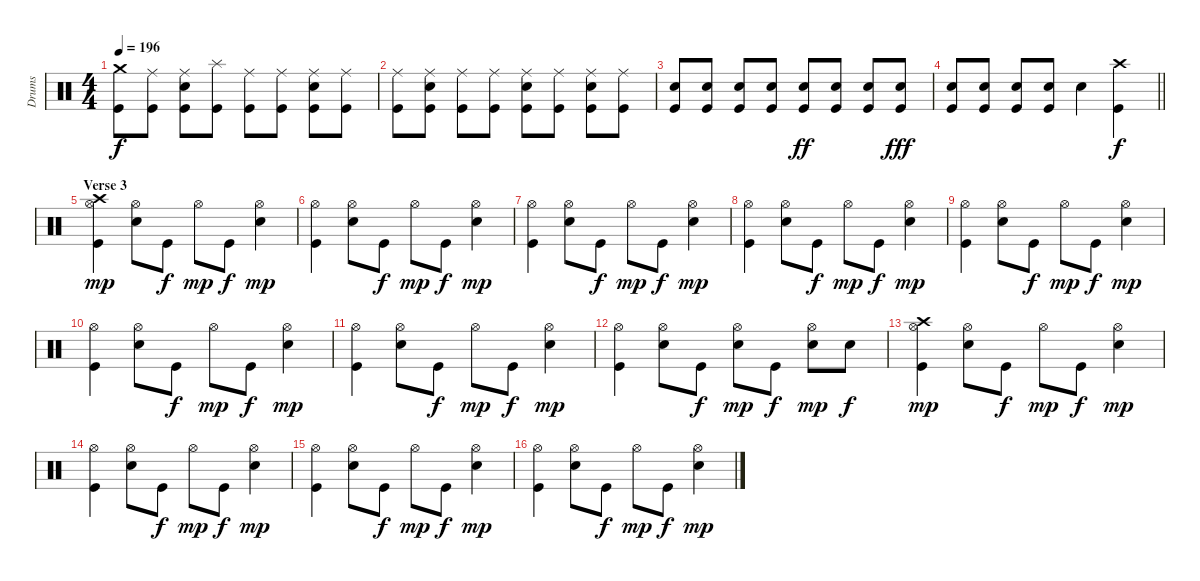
\track ("Drums" "Drums") {instrument percussion}
\staff {score}
\articulation defaults
\ts (4 4)
\tempo 196
\clef neutral
\ks c
("Crash medium (hit)" "Kick (hit)").8{dy f} ("Ride (middle)" "Kick (hit)").8 ("Ride (middle)" "Electric Snare (hit)" "Kick (hit)").8 ("Splash (hit)" "Kick (hit)").8 ("Ride (middle)" "Kick (hit)").8 ("Ride (middle)" "Kick (hit)").8 ("Ride (middle)" "Electric Snare (hit)" "Kick (hit)").8 ("Ride (middle)" "Kick (hit)").8 |
("Ride (middle)" "Kick (hit)").8 ("Ride (middle)" "Electric Snare (hit)" "Kick (hit)").8 ("Ride (middle)" "Kick (hit)").8 ("Ride (middle)" "Kick (hit)").8 ("Ride (middle)" "Electric Snare (hit)" "Kick (hit)").8 ("Ride (middle)" "Kick (hit)").8 ("Ride (middle)" "Electric Snare (hit)" "Kick (hit)").8 ("Ride (middle)" "Kick (hit)").8 |
("Electric Snare (hit)" "Kick (hit)").8 ("Electric Snare (hit)" "Kick (hit)").8 ("Electric Snare (hit)" "Kick (hit)").8 ("Electric Snare (hit)" "Kick (hit)").8 ("Electric Snare (hit)" "Kick (hit)").8{dy ff} ("Electric Snare (hit)" "Kick (hit)").8 ("Electric Snare (hit)" "Kick (hit)").8 ("Electric Snare (hit)" "Kick (hit)").8{dy fff} |
\barLineRight lightlight
("Electric Snare (hit)" "Kick (hit)").8 ("Electric Snare (hit)" "Kick (hit)").8 ("Electric Snare (hit)" "Kick (hit)").8 ("Electric Snare (hit)" "Kick (hit)").8 "Electric Snare (hit)".4 ("Crash high (hit)" "Kick (hit)").4{dy f} |
\section ("" "Verse 3")
("Crash high (hit)" "Hi-Hat (open)" "Kick (hit)").4{dy mp} ("Hi-Hat (open)" "Electric Snare (hit)").8 "Kick (hit)".8{dy f} "Hi-Hat (open)".8{dy mp} "Kick (hit)".8{dy f} ("Hi-Hat (open)" "Electric Snare (hit)").4{dy mp} |
("Hi-Hat (open)" "Kick (hit)").4 ("Hi-Hat (open)" "Electric Snare (hit)").8 "Kick (hit)".8{dy f} "Hi-Hat (open)".8{dy mp} "Kick (hit)".8{dy f} ("Hi-Hat (open)" "Electric Snare (hit)").4{dy mp} |
("Hi-Hat (open)" "Kick (hit)").4 ("Hi-Hat (open)" "Electric Snare (hit)").8 "Kick (hit)".8{dy f} "Hi-Hat (open)".8{dy mp} "Kick (hit)".8{dy f} ("Hi-Hat (open)" "Electric Snare (hit)").4{dy mp} |
("Hi-Hat (open)" "Kick (hit)").4 ("Hi-Hat (open)" "Electric Snare (hit)").8 "Kick (hit)".8{dy f} "Hi-Hat (open)".8{dy mp} "Kick (hit)".8{dy f} ("Hi-Hat (open)" "Electric Snare (hit)").4{dy mp} |
("Hi-Hat (open)" "Kick (hit)").4 ("Hi-Hat (open)" "Electric Snare (hit)").8 "Kick (hit)".8{dy f} "Hi-Hat (open)".8{dy mp} "Kick (hit)".8{dy f} ("Hi-Hat (open)" "Electric Snare (hit)").4{dy mp} |
("Hi-Hat (open)" "Kick (hit)").4 ("Hi-Hat (open)" "Electric Snare (hit)").8 "Kick (hit)".8{dy f} "Hi-Hat (open)".8{dy mp} "Kick (hit)".8{dy f} ("Hi-Hat (open)" "Electric Snare (hit)").4{dy mp} |
("Hi-Hat (open)" "Kick (hit)").4 ("Hi-Hat (open)" "Electric Snare (hit)").8 "Kick (hit)".8{dy f} "Hi-Hat (open)".8{dy mp} "Kick (hit)".8{dy f} ("Hi-Hat (open)" "Electric Snare (hit)").4{dy mp} |
("Hi-Hat (open)" "Kick (hit)").4 ("Hi-Hat (open)" "Electric Snare (hit)").8 "Kick (hit)".8{dy f} ("Hi-Hat (open)" "Electric Snare (hit)").8{dy mp} "Kick (hit)".8{dy f} ("Hi-Hat (open)" "Electric Snare (hit)").8{dy mp} "Electric Snare (hit)".8{dy f} |
("Crash high (hit)" "Hi-Hat (open)" "Kick (hit)").4{dy mp} ("Hi-Hat (open)" "Electric Snare (hit)").8 "Kick (hit)".8{dy f} "Hi-Hat (open)".8{dy mp} "Kick (hit)".8{dy f} ("Hi-Hat (open)" "Electric Snare (hit)").4{dy mp} |
("Hi-Hat (open)" "Kick (hit)").4 ("Hi-Hat (open)" "Electric Snare (hit)").8 "Kick (hit)".8{dy f} "Hi-Hat (open)".8{dy mp} "Kick (hit)".8{dy f} ("Hi-Hat (open)" "Electric Snare (hit)").4{dy mp} |
("Hi-Hat (open)" "Kick (hit)").4 ("Hi-Hat (open)" "Electric Snare (hit)").8 "Kick (hit)".8{dy f} "Hi-Hat (open)".8{dy mp} "Kick (hit)".8{dy f} ("Hi-Hat (open)" "Electric Snare (hit)").4{dy mp} |
("Hi-Hat (open)" "Kick (hit)").4 ("Hi-Hat (open)" "Electric Snare (hit)").8 "Kick (hit)".8{dy f} "Hi-Hat (open)".8{dy mp} "Kick (hit)".8{dy f} ("Hi-Hat (open)" "Electric Snare (hit)").4{dy mp}
